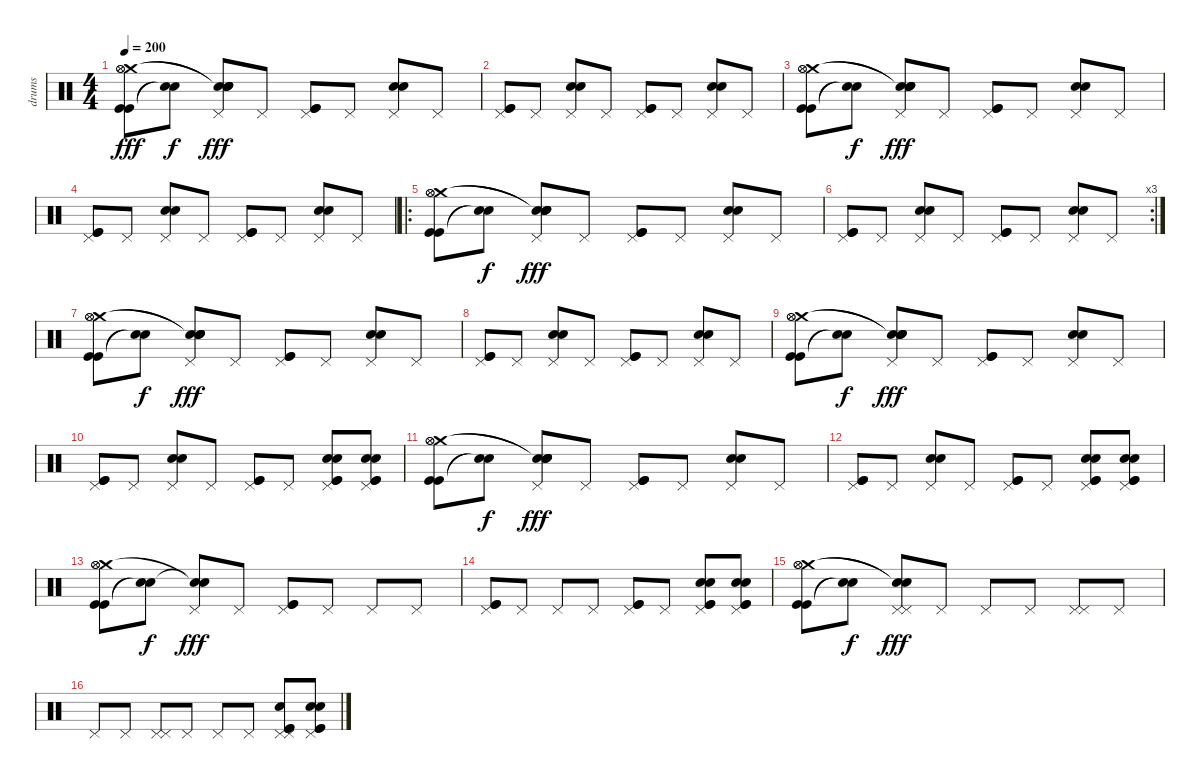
\track ("drums" "drums") {instrument percussion}
\staff {score}
\articulation defaults
\ts (4 4)
\tempo 200
\clef neutral
\ks c
("Kick (hit)" "Kick (hit)" "Crash medium (hit)" "Hi-Hat (open)" "Hi-Hat (open)").8{dy fff} ("Snare (hit)"{t} "Snare (hit)"{t}).8{dy f} ("Snare (hit) 2" "Electric Snare (hit)" "Pedal Hi-Hat (hit)" "Snare (hit)"{t} "Snare (hit)"{t}).8{dy fff} "Pedal Hi-Hat (hit)".8 ("Kick (hit)" "Kick (hit)" "Pedal Hi-Hat (hit)").8 "Pedal Hi-Hat (hit)".8 ("Snare (hit) 2" "Electric Snare (hit)" "Pedal Hi-Hat (hit)").8 "Pedal Hi-Hat (hit)".8 |
("Kick (hit)" "Kick (hit)" "Pedal Hi-Hat (hit)").8 "Pedal Hi-Hat (hit)".8 ("Snare (hit) 2" "Electric Snare (hit)" "Pedal Hi-Hat (hit)").8 "Pedal Hi-Hat (hit)".8 ("Kick (hit)" "Kick (hit)" "Pedal Hi-Hat (hit)").8 "Pedal Hi-Hat (hit)".8 ("Snare (hit) 2" "Electric Snare (hit)" "Pedal Hi-Hat (hit)").8 "Pedal Hi-Hat (hit)".8 |
("Kick (hit)" "Kick (hit)" "Crash medium (hit)" "Hi-Hat (open)" "Hi-Hat (open)").8 ("Snare (hit)"{t} "Snare (hit)"{t}).8{dy f} ("Snare (hit) 2" "Electric Snare (hit)" "Pedal Hi-Hat (hit)" "Snare (hit)"{t} "Snare (hit)"{t}).8{dy fff} "Pedal Hi-Hat (hit)".8 ("Kick (hit)" "Kick (hit)" "Pedal Hi-Hat (hit)").8 "Pedal Hi-Hat (hit)".8 ("Snare (hit) 2" "Electric Snare (hit)" "Pedal Hi-Hat (hit)").8 "Pedal Hi-Hat (hit)".8 |
("Kick (hit)" "Kick (hit)" "Pedal Hi-Hat (hit)").8 "Pedal Hi-Hat (hit)".8 ("Snare (hit) 2" "Electric Snare (hit)" "Pedal Hi-Hat (hit)").8 "Pedal Hi-Hat (hit)".8 ("Kick (hit)" "Kick (hit)" "Pedal Hi-Hat (hit)").8 "Pedal Hi-Hat (hit)".8 ("Snare (hit) 2" "Electric Snare (hit)" "Pedal Hi-Hat (hit)").8 "Pedal Hi-Hat (hit)".8 |
\ro
("Kick (hit)" "Kick (hit)" "Crash medium (hit)" "Hi-Hat (open)" "Hi-Hat (open)").8 ("Snare (hit)"{t} "Snare (hit)"{t}).8{dy f} ("Snare (hit) 2" "Electric Snare (hit)" "Pedal Hi-Hat (hit)" "Snare (hit)"{t} "Snare (hit)"{t}).8{dy fff} "Pedal Hi-Hat (hit)".8 ("Kick (hit)" "Kick (hit)" "Pedal Hi-Hat (hit)").8 "Pedal Hi-Hat (hit)".8 ("Snare (hit) 2" "Electric Snare (hit)" "Pedal Hi-Hat (hit)").8 "Pedal Hi-Hat (hit)".8 |
\rc 3
("Kick (hit)" "Kick (hit)" "Pedal Hi-Hat (hit)").8 "Pedal Hi-Hat (hit)".8 ("Snare (hit) 2" "Electric Snare (hit)" "Pedal Hi-Hat (hit)").8 "Pedal Hi-Hat (hit)".8 ("Kick (hit)" "Kick (hit)" "Pedal Hi-Hat (hit)").8 "Pedal Hi-Hat (hit)".8 ("Snare (hit) 2" "Electric Snare (hit)" "Pedal Hi-Hat (hit)").8 "Pedal Hi-Hat (hit)".8 |
("Kick (hit)" "Kick (hit)" "Crash medium (hit)" "Hi-Hat (open)" "Hi-Hat (open)").8 ("Snare (hit)"{t} "Snare (hit)"{t}).8{dy f} ("Snare (hit) 2" "Electric Snare (hit)" "Pedal Hi-Hat (hit)" "Snare (hit)"{t} "Snare (hit)"{t}).8{dy fff} "Pedal Hi-Hat (hit)".8 ("Kick (hit)" "Kick (hit)" "Pedal Hi-Hat (hit)").8 "Pedal Hi-Hat (hit)".8 ("Snare (hit) 2" "Electric Snare (hit)" "Pedal Hi-Hat (hit)").8 "Pedal Hi-Hat (hit)".8 |
("Kick (hit)" "Kick (hit)" "Pedal Hi-Hat (hit)").8 "Pedal Hi-Hat (hit)".8 ("Snare (hit) 2" "Electric Snare (hit)" "Pedal Hi-Hat (hit)").8 "Pedal Hi-Hat (hit)".8 ("Kick (hit)" "Kick (hit)" "Pedal Hi-Hat (hit)").8 "Pedal Hi-Hat (hit)".8 ("Snare (hit) 2" "Electric Snare (hit)" "Pedal Hi-Hat (hit)").8 "Pedal Hi-Hat (hit)".8 |
("Kick (hit)" "Kick (hit)" "Crash medium (hit)" "Hi-Hat (open)" "Hi-Hat (open)").8 ("Snare (hit)"{t} "Snare (hit)"{t}).8{dy f} ("Snare (hit) 2" "Electric Snare (hit)" "Pedal Hi-Hat (hit)" "Snare (hit)"{t} "Snare (hit)"{t}).8{dy fff} "Pedal Hi-Hat (hit)".8 ("Kick (hit)" "Kick (hit)" "Pedal Hi-Hat (hit)").8 "Pedal Hi-Hat (hit)".8 ("Snare (hit) 2" "Electric Snare (hit)" "Pedal Hi-Hat (hit)").8 "Pedal Hi-Hat (hit)".8 |
("Kick (hit)" "Kick (hit)" "Pedal Hi-Hat (hit)").8 "Pedal Hi-Hat (hit)".8 ("Snare (hit) 2" "Electric Snare (hit)" "Pedal Hi-Hat (hit)").8 "Pedal Hi-Hat (hit)".8 ("Kick (hit)" "Kick (hit)" "Pedal Hi-Hat (hit)").8 "Pedal Hi-Hat (hit)".8 ("Snare (hit) 2" "Electric Snare (hit)" "Pedal Hi-Hat (hit)" "Kick (hit)" "Kick (hit)").8 ("Snare (hit) 2" "Electric Snare (hit)" "Pedal Hi-Hat (hit)" "Kick (hit)" "Kick (hit)").8 |
("Kick (hit)" "Kick (hit)" "Crash medium (hit)" "Hi-Hat (open)" "Hi-Hat (open)").8 ("Snare (hit)"{t} "Snare (hit)"{t}).8{dy f} ("Snare (hit) 2" "Electric Snare (hit)" "Pedal Hi-Hat (hit)" "Snare (hit)"{t} "Snare (hit)"{t}).8{dy fff} "Pedal Hi-Hat (hit)".8 ("Kick (hit)" "Kick (hit)" "Pedal Hi-Hat (hit)").8 "Pedal Hi-Hat (hit)".8 ("Snare (hit) 2" "Electric Snare (hit)" "Pedal Hi-Hat (hit)").8 "Pedal Hi-Hat (hit)".8 |
("Kick (hit)" "Kick (hit)" "Pedal Hi-Hat (hit)").8 "Pedal Hi-Hat (hit)".8 ("Snare (hit) 2" "Electric Snare (hit)" "Pedal Hi-Hat (hit)").8 "Pedal Hi-Hat (hit)".8 ("Kick (hit)" "Kick (hit)" "Pedal Hi-Hat (hit)").8 "Pedal Hi-Hat (hit)".8 ("Snare (hit) 2" "Electric Snare (hit)" "Pedal Hi-Hat (hit)" "Kick (hit)" "Kick (hit)").8 ("Snare (hit) 2" "Electric Snare (hit)" "Pedal Hi-Hat (hit)" "Kick (hit)" "Kick (hit)").8 |
("Kick (hit)" "Kick (hit)" "Crash medium (hit)" "Hi-Hat (open)" "Hi-Hat (open)").8 ("Snare (hit)"{t} "Snare (hit)"{t}).8{dy f} ("Pedal Hi-Hat (hit)" "Snare (hit)"{t} "Snare (hit)"{t}).8{dy fff} "Pedal Hi-Hat (hit)".8 ("Kick (hit)" "Kick (hit)" "Pedal Hi-Hat (hit)").8 "Pedal Hi-Hat (hit)".8 "Pedal Hi-Hat (hit)".8 "Pedal Hi-Hat (hit)".8 |
("Kick (hit)" "Kick (hit)" "Pedal Hi-Hat (hit)").8 "Pedal Hi-Hat (hit)".8 "Pedal Hi-Hat (hit)".8 "Pedal Hi-Hat (hit)".8 ("Kick (hit)" "Kick (hit)" "Pedal Hi-Hat (hit)").8 "Pedal Hi-Hat (hit)".8 ("Snare (hit) 2" "Electric Snare (hit)" "Pedal Hi-Hat (hit)" "Kick (hit)" "Kick (hit)").8 ("Snare (hit) 2" "Electric Snare (hit)" "Pedal Hi-Hat (hit)" "Kick (hit)" "Kick (hit)").8 |
("Kick (hit)" "Kick (hit)" "Crash medium (hit)" "Hi-Hat (open)" "Hi-Hat (open)").8 ("Snare (hit)"{t} "Snare (hit)"{t}).8{dy f} ("Pedal Hi-Hat (hit)" "Pedal Hi-Hat (hit)" "Snare (hit)"{t} "Snare (hit)"{t}).8{dy fff} "Pedal Hi-Hat (hit)".8 "Pedal Hi-Hat (hit)".8 "Pedal Hi-Hat (hit)".8 ("Pedal Hi-Hat (hit)" "Pedal Hi-Hat (hit)").8 "Pedal Hi-Hat (hit)".8 |
"Pedal Hi-Hat (hit)".8 "Pedal Hi-Hat (hit)".8 ("Pedal Hi-Hat (hit)" "Pedal Hi-Hat (hit)").8 "Pedal Hi-Hat (hit)".8 "Pedal Hi-Hat (hit)".8 "Pedal Hi-Hat (hit)".8 ("Snare (hit) 2" "Pedal Hi-Hat (hit)" "Pedal Hi-Hat (hit)" "Kick (hit)" "Kick (hit)").8 ("Snare (hit) 2" "Electric Snare (hit)" "Pedal Hi-Hat (hit)" "Kick (hit)" "Kick (hit)").8
